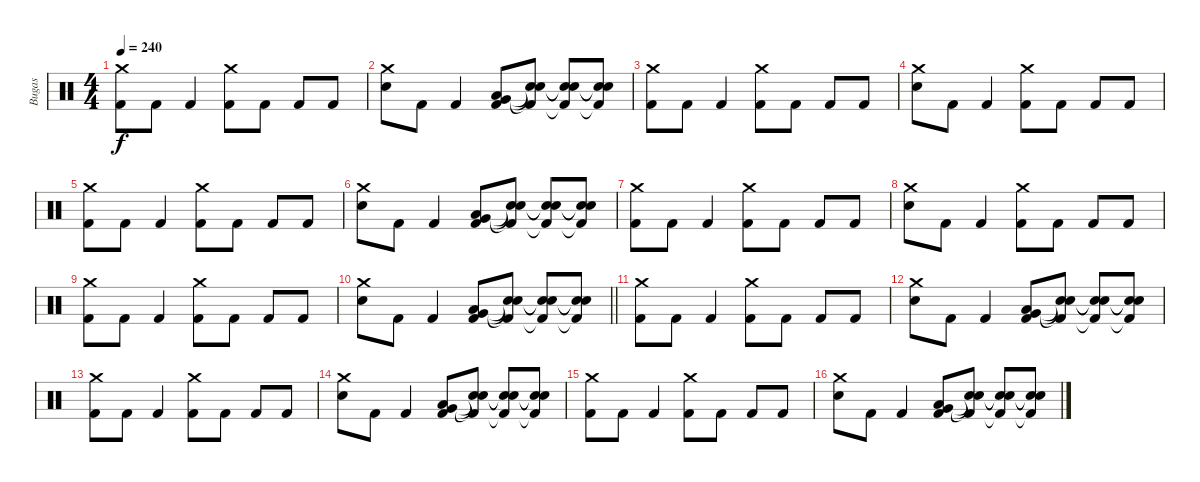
\track ("Bugas" "Bugas") {instrument percussion}
\staff {score}
\articulation defaults
\ts (4 4)
\tempo 240
\clef neutral
\ks c
("Crash medium (hit)" "Kick (hit) 2").8{dy f} "Kick (hit) 2".8 "Kick (hit) 2".4 ("Crash medium (hit)" "Kick (hit) 2").8 "Kick (hit) 2".8 "Kick (hit) 2".8 "Kick (hit) 2".8 |
("Crash medium (hit)" "Electric Snare (hit)").8 "Kick (hit) 2".8 "Kick (hit) 2".4 ("Kick (hit) 2" "Very Low Tom (hit)" "Low Tom (hit)").8 ("Snare (hit)"{t} "Snare (hit)"{t} "Kick (hit) 2"{t}).8 ("Snare (hit)"{t} "Snare (hit)"{t} "Kick (hit) 2"{t}).8 ("Snare (hit)"{t} "Snare (hit)"{t} "Kick (hit) 2"{t}).8 |
("Crash medium (hit)" "Kick (hit) 2").8 "Kick (hit) 2".8 "Kick (hit) 2".4 ("Crash medium (hit)" "Kick (hit) 2").8 "Kick (hit) 2".8 "Kick (hit) 2".8 "Kick (hit) 2".8 |
("Crash medium (hit)" "Electric Snare (hit)").8 "Kick (hit) 2".8 "Kick (hit) 2".4 ("Crash medium (hit)" "Kick (hit) 2").8 "Kick (hit) 2".8 "Kick (hit) 2".8 "Kick (hit) 2".8 |
("Crash medium (hit)" "Kick (hit) 2").8 "Kick (hit) 2".8 "Kick (hit) 2".4 ("Crash medium (hit)" "Kick (hit) 2").8 "Kick (hit) 2".8 "Kick (hit) 2".8 "Kick (hit) 2".8 |
("Crash medium (hit)" "Electric Snare (hit)").8 "Kick (hit) 2".8 "Kick (hit) 2".4 ("Kick (hit) 2" "Very Low Tom (hit)" "Low Tom (hit)").8 ("Snare (hit)"{t} "Snare (hit)"{t} "Kick (hit) 2"{t}).8 ("Snare (hit)"{t} "Snare (hit)"{t} "Kick (hit) 2"{t}).8 ("Snare (hit)"{t} "Snare (hit)"{t} "Kick (hit) 2"{t}).8 |
("Crash medium (hit)" "Kick (hit) 2").8 "Kick (hit) 2".8 "Kick (hit) 2".4 ("Crash medium (hit)" "Kick (hit) 2").8 "Kick (hit) 2".8 "Kick (hit) 2".8 "Kick (hit) 2".8 |
("Crash medium (hit)" "Electric Snare (hit)").8 "Kick (hit) 2".8 "Kick (hit) 2".4 ("Crash medium (hit)" "Kick (hit) 2").8 "Kick (hit) 2".8 "Kick (hit) 2".8 "Kick (hit) 2".8 |
("Crash medium (hit)" "Kick (hit) 2").8 "Kick (hit) 2".8 "Kick (hit) 2".4 ("Crash medium (hit)" "Kick (hit) 2").8 "Kick (hit) 2".8 "Kick (hit) 2".8 "Kick (hit) 2".8 |
\barLineRight lightlight
("Crash medium (hit)" "Electric Snare (hit)").8 "Kick (hit) 2".8 "Kick (hit) 2".4 ("Kick (hit) 2" "Very Low Tom (hit)" "Low Tom (hit)").8 ("Snare (hit)"{t} "Snare (hit)"{t} "Kick (hit) 2"{t}).8 ("Snare (hit)"{t} "Snare (hit)"{t} "Kick (hit) 2"{t}).8 ("Snare (hit)"{t} "Snare (hit)"{t} "Kick (hit) 2"{t}).8 |
("Crash medium (hit)" "Kick (hit) 2").8 "Kick (hit) 2".8 "Kick (hit) 2".4 ("Crash medium (hit)" "Kick (hit) 2").8 "Kick (hit) 2".8 "Kick (hit) 2".8 "Kick (hit) 2".8 |
("Crash medium (hit)" "Electric Snare (hit)").8 "Kick (hit) 2".8 "Kick (hit) 2".4 ("Kick (hit) 2" "Very Low Tom (hit)" "Low Tom (hit)").8 ("Snare (hit)"{t} "Snare (hit)"{t} "Kick (hit) 2"{t}).8 ("Snare (hit)"{t} "Snare (hit)"{t} "Kick (hit) 2"{t}).8 ("Snare (hit)"{t} "Snare (hit)"{t} "Kick (hit) 2"{t}).8 |
("Crash medium (hit)" "Kick (hit) 2").8 "Kick (hit) 2".8 "Kick (hit) 2".4 ("Crash medium (hit)" "Kick (hit) 2").8 "Kick (hit) 2".8 "Kick (hit) 2".8 "Kick (hit) 2".8 |
("Crash medium (hit)" "Electric Snare (hit)").8 "Kick (hit) 2".8 "Kick (hit) 2".4 ("Kick (hit) 2" "Very Low Tom (hit)" "Low Tom (hit)").8 ("Snare (hit)"{t} "Snare (hit)"{t} "Kick (hit) 2"{t}).8 ("Snare (hit)"{t} "Snare (hit)"{t} "Kick (hit) 2"{t}).8 ("Snare (hit)"{t} "Snare (hit)"{t} "Kick (hit) 2"{t}).8 |
("Crash medium (hit)" "Kick (hit) 2").8 "Kick (hit) 2".8 "Kick (hit) 2".4 ("Crash medium (hit)" "Kick (hit) 2").8 "Kick (hit) 2".8 "Kick (hit) 2".8 "Kick (hit) 2".8 |
("Crash medium (hit)" "Electric Snare (hit)").8 "Kick (hit) 2".8 "Kick (hit) 2".4 ("Kick (hit) 2" "Very Low Tom (hit)" "Low Tom (hit)").8 ("Snare (hit)"{t} "Snare (hit)"{t} "Kick (hit) 2"{t}).8 ("Snare (hit)"{t} "Snare (hit)"{t} "Kick (hit) 2"{t}).8 ("Snare (hit)"{t} "Snare (hit)"{t} "Kick (hit) 2"{t}).8
